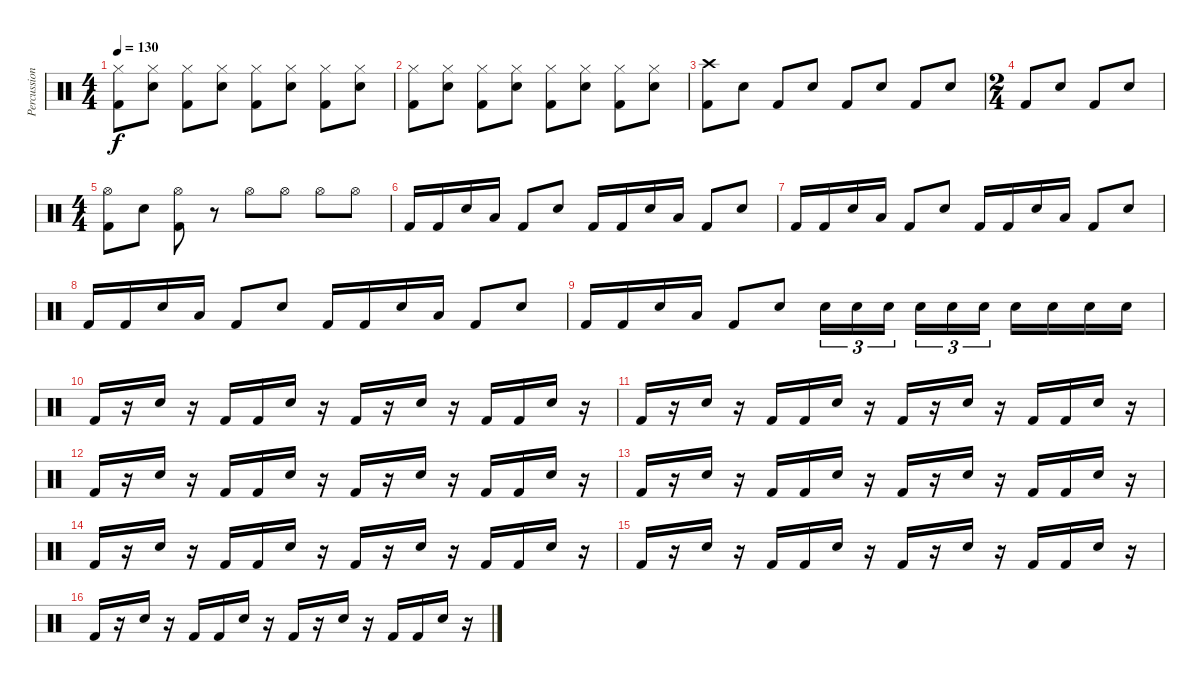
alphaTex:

\track ("Percussion" "Percussion") {instrument percussion}
\staff {score}
\articulation defaults
\ts (4 4)
\tempo 130
\clef neutral
\ks c
("Hi-Hat (closed)" "Kick (hit) 2").8{dy f} ("Hi-Hat (closed)" "Snare (hit) 2").8 ("Hi-Hat (closed)" "Kick (hit) 2").8 ("Hi-Hat (closed)" "Snare (hit) 2").8 ("Hi-Hat (closed)" "Kick (hit) 2").8 ("Hi-Hat (closed)" "Snare (hit) 2").8 ("Hi-Hat (closed)" "Kick (hit) 2").8 ("Hi-Hat (closed)" "Snare (hit) 2").8 |
("Hi-Hat (closed)" "Kick (hit) 2").8 ("Hi-Hat (closed)" "Snare (hit) 2").8 ("Hi-Hat (closed)" "Kick (hit) 2").8 ("Hi-Hat (closed)" "Snare (hit) 2").8 ("Hi-Hat (closed)" "Kick (hit) 2").8 ("Hi-Hat (closed)" "Snare (hit) 2").8 ("Hi-Hat (closed)" "Kick (hit) 2").8 ("Hi-Hat (closed)" "Snare (hit) 2").8 |
("Crash high (hit)" "Kick (hit) 2").8 "Snare (hit) 2".8 "Kick (hit) 2".8 "Snare (hit) 2".8 "Kick (hit) 2".8 "Snare (hit) 2".8 "Kick (hit) 2".8 "Snare (hit) 2".8 |
\ts (2 4)
"Kick (hit) 2".8 "Snare (hit) 2".8 "Kick (hit) 2".8 "Snare (hit) 2".8 |
\ts (4 4)
("Hi-Hat (open)" "Kick (hit) 2").8 "Snare (hit) 2".8 ("Hi-Hat (open)" "Kick (hit) 2").8 r.8 "Hi-Hat (open)".8 "Hi-Hat (open)".8 "Hi-Hat (open)".8 "Hi-Hat (open)".8 |
"Kick (hit) 2".16 "Kick (hit) 2".16 "Snare (hit) 2".16 "Low Tom (hit)".16 "Kick (hit) 2".8 "Snare (hit) 2".8 "Kick (hit) 2".16 "Kick (hit) 2".16 "Snare (hit) 2".16 "Low Tom (hit)".16 "Kick (hit) 2".8 "Snare (hit) 2".8 |
"Kick (hit) 2".16 "Kick (hit) 2".16 "Snare (hit) 2".16 "Low Tom (hit)".16 "Kick (hit) 2".8 "Snare (hit) 2".8 "Kick (hit) 2".16 "Kick (hit) 2".16 "Snare (hit) 2".16 "Low Tom (hit)".16 "Kick (hit) 2".8 "Snare (hit) 2".8 |
"Kick (hit) 2".16 "Kick (hit) 2".16 "Snare (hit) 2".16 "Low Tom (hit)".16 "Kick (hit) 2".8 "Snare (hit) 2".8 "Kick (hit) 2".16 "Kick (hit) 2".16 "Snare (hit) 2".16 "Low Tom (hit)".16 "Kick (hit) 2".8 "Snare (hit) 2".8 |
"Kick (hit) 2".16 "Kick (hit) 2".16 "Snare (hit) 2".16 "Low Floor Tom (hit)".16 "Kick (hit) 2".8 "Snare (hit) 2".8 "Snare (hit) 2".16{tu (3 2)} "Snare (hit) 2".16{tu (3 2)} "Snare (hit) 2".16{tu (3 2)} "Snare (hit) 2".16{tu (3 2)} "Snare (hit) 2".16{tu (3 2)} "Snare (hit) 2".16{tu (3 2)} "Snare (hit) 2".16 "Snare (hit) 2".16 "Snare (hit) 2".16 "Snare (hit) 2".16 |
"Kick (hit) 2".16 r.16 "Snare (hit) 2".16 r.16 "Kick (hit) 2".16 "Kick (hit) 2".16 "Snare (hit) 2".16 r.16 "Kick (hit) 2".16 r.16 "Snare (hit) 2".16 r.16 "Kick (hit) 2".16 "Kick (hit) 2".16 "Snare (hit) 2".16 r.16 |
"Kick (hit) 2".16 r.16 "Snare (hit) 2".16 r.16 "Kick (hit) 2".16 "Kick (hit) 2".16 "Snare (hit) 2".16 r.16 "Kick (hit) 2".16 r.16 "Snare (hit) 2".16 r.16 "Kick (hit) 2".16 "Kick (hit) 2".16 "Snare (hit) 2".16 r.16 |
"Kick (hit) 2".16 r.16 "Snare (hit) 2".16 r.16 "Kick (hit) 2".16 "Kick (hit) 2".16 "Snare (hit) 2".16 r.16 "Kick (hit) 2".16 r.16 "Snare (hit) 2".16 r.16 "Kick (hit) 2".16 "Kick (hit) 2".16 "Snare (hit) 2".16 r.16 |
"Kick (hit) 2".16 r.16 "Snare (hit) 2".16 r.16 "Kick (hit) 2".16 "Kick (hit) 2".16 "Snare (hit) 2".16 r.16 "Kick (hit) 2".16 r.16 "Snare (hit) 2".16 r.16 "Kick (hit) 2".16 "Kick (hit) 2".16 "Snare (hit) 2".16 r.16 |
"Kick (hit) 2".16 r.16 "Snare (hit) 2".16 r.16 "Kick (hit) 2".16 "Kick (hit) 2".16 "Snare (hit) 2".16 r.16 "Kick (hit) 2".16 r.16 "Snare (hit) 2".16 r.16 "Kick (hit) 2".16 "Kick (hit) 2".16 "Snare (hit) 2".16 r.16 |
"Kick (hit) 2".16 r.16 "Snare (hit) 2".16 r.16 "Kick (hit) 2".16 "Kick (hit) 2".16 "Snare (hit) 2".16 r.16 "Kick (hit) 2".16 r.16 "Snare (hit) 2".16 r.16 "Kick (hit) 2".16 "Kick (hit) 2".16 "Snare (hit) 2".16 r.16 |
"Kick (hit) 2".16 r.16 "Snare (hit) 2".16 r.16 "Kick (hit) 2".16 "Kick (hit) 2".16 "Snare (hit) 2".16 r.16 "Kick (hit) 2".16 r.16 "Snare (hit) 2".16 r.16 "Kick (hit) 2".16 "Kick (hit) 2".16 "Snare (hit) 2".16 r.16
